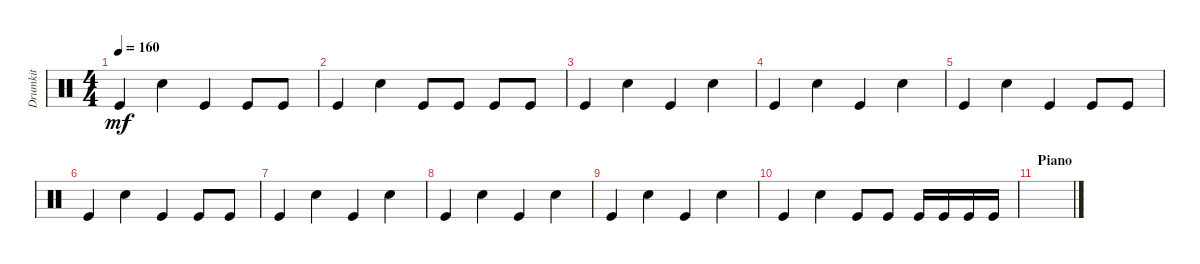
\track ("Drumkit" "Drumkit") {instrument percussion}
\staff {score}
\articulation defaults
\ts (4 4)
\tempo 160
\clef neutral
\ks c "Kick (hit)".4{dy mf} "Hand Clap (hit)".4 "Kick (hit)".4 "Kick (hit)".8 "Kick (hit)".8
|
"Kick (hit)".4 "Hand Clap (hit)".4 "Kick (hit)".8 "Kick (hit)".8 "Kick (hit)".8 "Kick (hit)".8 |
"Kick (hit)".4 "Hand Clap (hit)".4 "Kick (hit)".4 "Hand Clap (hit)".4 |
"Kick (hit)".4 "Hand Clap (hit)".4 "Kick (hit)".4 "Hand Clap (hit)".4 |
"Kick (hit)".4 "Hand Clap (hit)".4 "Kick (hit)".4 "Kick (hit)".8 "Kick (hit)".8 |
"Kick (hit)".4 "Hand Clap (hit)".4 "Kick (hit)".4 "Kick (hit)".8 "Kick (hit)".8 |
"Kick (hit)".4 "Hand Clap (hit)".4 "Kick (hit)".4 "Hand Clap (hit)".4 |
"Kick (hit)".4 "Hand Clap (hit)".4 "Kick (hit)".4 "Hand Clap (hit)".4 |
"Kick (hit)".4 "Hand Clap (hit)".4 "Kick (hit)".4 "Hand Clap (hit)".4 |
"Kick (hit)".4 "Hand Clap (hit)".4 "Kick (hit)".8 "Kick (hit)".8 "Kick (hit)".16 "Kick (hit)".16 "Kick (hit)".16 "Kick (hit)".16 |
\section ("" "Piano")
